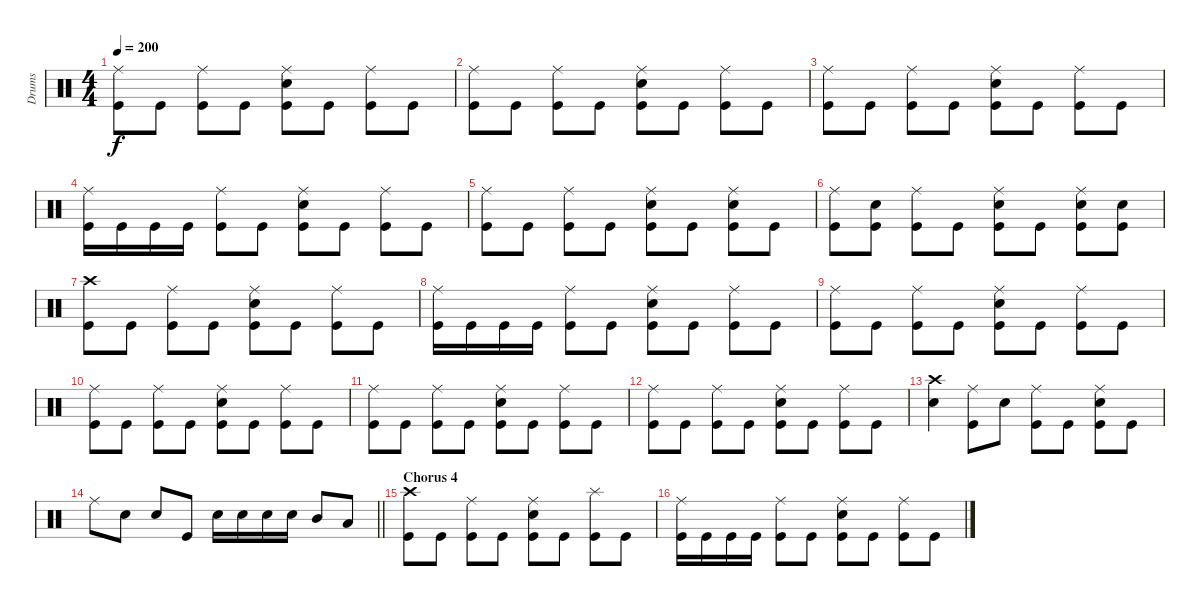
\track ("Drums" "Drums") {instrument percussion}
\staff {score}
\articulation defaults
\ts (4 4)
\tempo 200
\clef neutral
\ks c
("Ride (middle)" "Kick (hit)").8{dy f} "Kick (hit)".8 ("Ride (middle)" "Kick (hit)").8 "Kick (hit)".8 ("Ride (middle)" "Snare (hit) 2" "Kick (hit)").8 "Kick (hit)".8 ("Ride (middle)" "Kick (hit)").8 "Kick (hit)".8 |
("Ride (middle)" "Kick (hit)").8 "Kick (hit)".8 ("Ride (middle)" "Kick (hit)").8 "Kick (hit)".8 ("Ride (middle)" "Snare (hit) 2" "Kick (hit)").8 "Kick (hit)".8 ("Ride (middle)" "Kick (hit)").8 "Kick (hit)".8 |
("Ride (middle)" "Kick (hit)").8 "Kick (hit)".8 ("Ride (middle)" "Kick (hit)").8 "Kick (hit)".8 ("Ride (middle)" "Snare (hit) 2" "Kick (hit)").8 "Kick (hit)".8 ("Ride (middle)" "Kick (hit)").8 "Kick (hit)".8 |
("Ride (middle)" "Kick (hit)").16 "Kick (hit)".16 "Kick (hit)".16 "Kick (hit)".16 ("Ride (middle)" "Kick (hit)").8 "Kick (hit)".8 ("Snare (hit) 2" "Ride (middle)" "Kick (hit)").8 "Kick (hit)".8 ("Ride (middle)" "Kick (hit)").8 "Kick (hit)".8 |
("Ride (middle)" "Kick (hit)").8 "Kick (hit)".8 ("Ride (middle)" "Kick (hit)").8 "Kick (hit)".8 ("Ride (middle)" "Snare (hit) 2" "Kick (hit)").8 "Kick (hit)".8 ("Ride (middle)" "Snare (hit) 2" "Kick (hit)").8 "Kick (hit)".8 |
("Ride (middle)" "Kick (hit)").8 ("Snare (hit) 2" "Kick (hit)").8 ("Ride (middle)" "Kick (hit)").8 "Kick (hit)".8 ("Ride (middle)" "Snare (hit) 2" "Kick (hit)").8 "Kick (hit)".8 ("Ride (middle)" "Snare (hit) 2" "Kick (hit)").8 ("Snare (hit) 2" "Kick (hit)").8 |
("Crash high (hit)" "Kick (hit)").8 "Kick (hit)".8 ("Ride (middle)" "Kick (hit)").8 "Kick (hit)".8 ("Ride (middle)" "Snare (hit) 2" "Kick (hit)").8 "Kick (hit)".8 ("Ride (middle)" "Kick (hit)").8 "Kick (hit)".8 |
("Ride (middle)" "Kick (hit)").16 "Kick (hit)".16 "Kick (hit)".16 "Kick (hit)".16 ("Ride (middle)" "Kick (hit)").8 "Kick (hit)".8 ("Snare (hit) 2" "Ride (middle)" "Kick (hit)").8 "Kick (hit)".8 ("Ride (middle)" "Kick (hit)").8 "Kick (hit)".8 |
("Ride (middle)" "Kick (hit)").8 "Kick (hit)".8 ("Ride (middle)" "Kick (hit)").8 "Kick (hit)".8 ("Ride (middle)" "Snare (hit) 2" "Kick (hit)").8 "Kick (hit)".8 ("Ride (middle)" "Kick (hit)").8 "Kick (hit)".8 |
("Ride (middle)" "Kick (hit)").8 "Kick (hit)".8 ("Ride (middle)" "Kick (hit)").8 "Kick (hit)".8 ("Ride (middle)" "Snare (hit) 2" "Kick (hit)").8 "Kick (hit)".8 ("Ride (middle)" "Kick (hit)").8 "Kick (hit)".8 |
("Ride (middle)" "Kick (hit)").8 "Kick (hit)".8 ("Ride (middle)" "Kick (hit)").8 "Kick (hit)".8 ("Ride (middle)" "Snare (hit) 2" "Kick (hit)").8 "Kick (hit)".8 ("Ride (middle)" "Kick (hit)").8 "Kick (hit)".8 |
("Ride (middle)" "Kick (hit)").8 "Kick (hit)".8 ("Ride (middle)" "Kick (hit)").8 "Kick (hit)".8 ("Ride (middle)" "Snare (hit) 2" "Kick (hit)").8 "Kick (hit)".8 ("Ride (middle)" "Kick (hit)").8 "Kick (hit)".8 |
("Crash high (hit)" "Snare (hit) 2").4 ("Ride (middle)" "Kick (hit)").8 "Snare (hit) 2".8 ("Ride (middle)" "Kick (hit)").8 "Kick (hit)".8 ("Ride (middle)" "Snare (hit) 2" "Kick (hit)").8 "Kick (hit)".8 |
\barLineRight lightlight "Ride (middle)".8 "Snare (hit) 2".8 "Snare (hit) 2".8 "Kick (hit)".8 "Snare (hit) 2".16 "Snare (hit) 2".16 "Snare (hit) 2".16 "Snare (hit) 2".16 "Mid Tom (hit)".8 "Low Tom (hit)".8
|
\section ("" "Chorus 4")
("Crash high (hit)" "Kick (hit)").8 "Kick (hit)".8 ("Ride (middle)" "Kick (hit)").8 "Kick (hit)".8 ("Ride (middle)" "Snare (hit) 2" "Kick (hit)").8 "Kick (hit)".8 ("Splash (hit)" "Kick (hit)").8 "Kick (hit)".8 |
("Ride (middle)" "Kick (hit)").16 "Kick (hit)".16 "Kick (hit)".16 "Kick (hit)".16 ("Ride (middle)" "Kick (hit)").8 "Kick (hit)".8 ("Snare (hit) 2" "Ride (middle)" "Kick (hit)").8 "Kick (hit)".8 ("Ride (middle)" "Kick (hit)").8 "Kick (hit)".8
